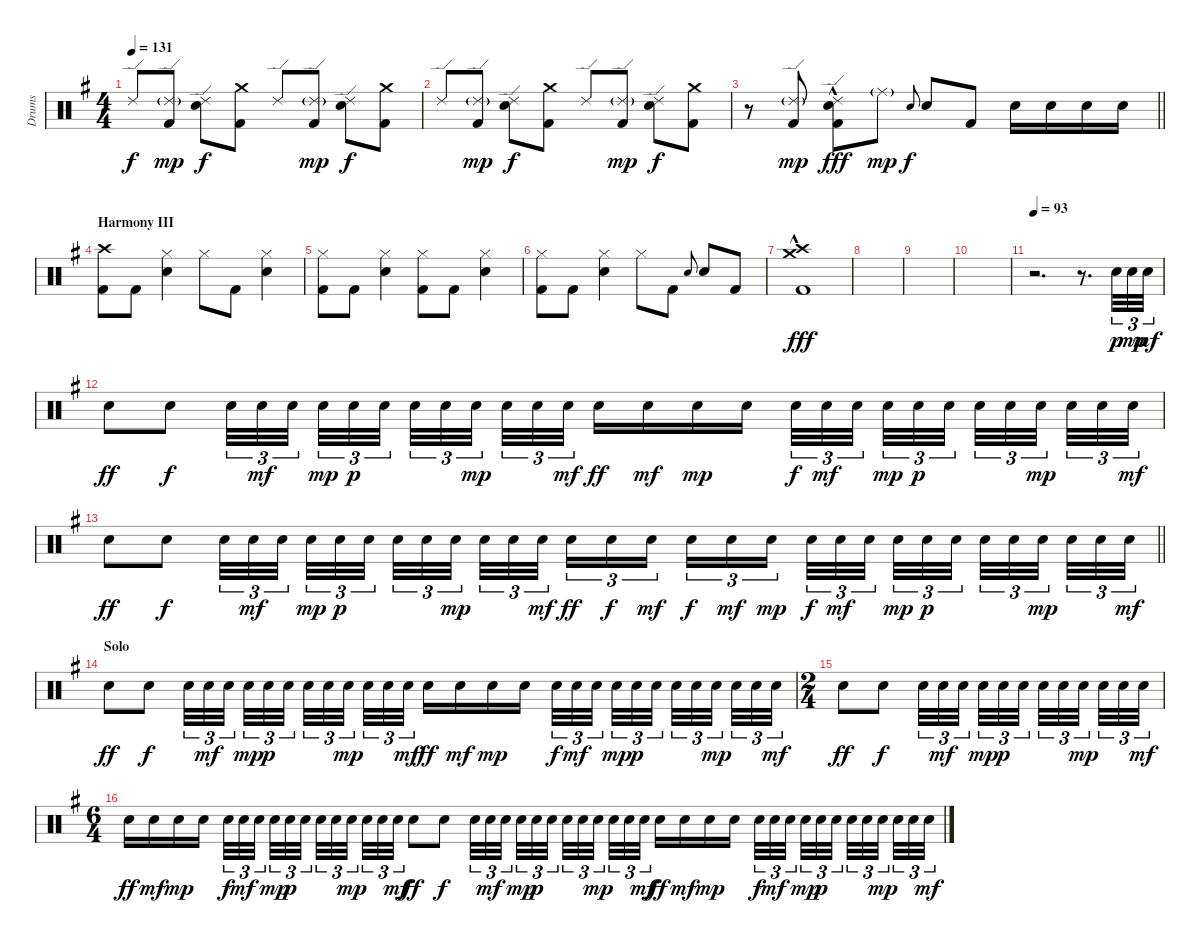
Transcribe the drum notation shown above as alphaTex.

\track ("Drums" "Drums") {instrument percussion}
\staff {score}
\articulation defaults
\ts (4 4)
\tempo 131
\clef neutral
\ks g "Ride (edge) 2".8{dy f}
("Ride (edge) 2"{g} "Kick (hit) 2").8{dy mp} ("Ride (edge) 2" "Electric Snare (hit)").8{dy f} ("Crash medium (hit)" "Kick (hit) 2").8 "Ride (edge) 2".8 ("Ride (edge) 2"{g} "Kick (hit) 2").8{dy mp} ("Ride (edge) 2" "Electric Snare (hit)").8{dy f} ("Crash medium (hit)" "Kick (hit) 2").8 |
"Ride (edge) 2".8 ("Ride (edge) 2"{g} "Kick (hit) 2").8{dy mp} ("Ride (edge) 2" "Electric Snare (hit)").8{dy f} ("Crash medium (hit)" "Kick (hit) 2").8 "Ride (edge) 2".8 ("Ride (edge) 2"{g} "Kick (hit) 2").8{dy mp} ("Ride (edge) 2" "Electric Snare (hit)").8{dy f} ("Crash medium (hit)" "Kick (hit) 2").8 |
\barLineRight lightlight
r.8 ("Ride (edge) 2"{g} "Kick (hit) 2").8{dy mp} ("Ride (edge) 2"{hac} "Electric Snare (hit)" "Kick (hit) 2").8{dy fff} "Ride (middle)"{g}.8{dy mp} "Electric Snare (hit)".8{gr onbeat dy f} "Electric Snare (hit)".8 "Kick (hit) 2".8 "Electric Snare (hit)".16 "Electric Snare (hit)".16 "Electric Snare (hit)".16 "Electric Snare (hit)".16 |
\section ("" "Harmony III")
("Crash high (hit)" "Kick (hit) 2").8 "Kick (hit) 2".8 ("Hi-Hat (closed)" "Electric Snare (hit)").4 "Hi-Hat (closed)".8 "Kick (hit) 2".8 ("Hi-Hat (closed)" "Electric Snare (hit)").4 |
("Hi-Hat (closed)" "Kick (hit) 2").8 "Kick (hit) 2".8 ("Hi-Hat (closed)" "Electric Snare (hit)").4 ("Hi-Hat (closed)" "Kick (hit) 2").8 "Kick (hit) 2".8 ("Hi-Hat (closed)" "Electric Snare (hit)").4 |
("Hi-Hat (closed)" "Kick (hit) 2").8 "Kick (hit) 2".8 ("Hi-Hat (closed)" "Electric Snare (hit)").4 "Hi-Hat (closed)".8 "Kick (hit) 2".8 "Electric Snare (hit)".8{gr onbeat} "Electric Snare (hit)".8 "Kick (hit) 2".8 |
("Crash medium (hit)"{hac} "Crash high (hit)"{hac} "Kick (hit) 2"{hac}).1{dy fff} |
|
|
|
\tempo 93
r.2{d volume 13} r.8{d} "Electric Snare (hit)".32{tu (3 2) dy p} "Electric Snare (hit)".32{tu (3 2) dy mp} "Electric Snare (hit)".32{tu (3 2) dy mf} |
"Electric Snare (hit)".8{dy ff} "Electric Snare (hit)".8{dy f} "Electric Snare (hit)".32{tu (3 2)} "Electric Snare (hit)".32{tu (3 2) dy mf} "Electric Snare (hit)".32{tu (3 2) beam splitsecondary} "Electric Snare (hit)".32{tu (3 2) dy mp} "Electric Snare (hit)".32{tu (3 2) dy p} "Electric Snare (hit)".32{tu (3 2) beam splitsecondary} "Electric Snare (hit)".32{tu (3 2)} "Electric Snare (hit)".32{tu (3 2)} "Electric Snare (hit)".32{tu (3 2) dy mp beam splitsecondary} "Electric Snare (hit)".32{tu (3 2)} "Electric Snare (hit)".32{tu (3 2)} "Electric Snare (hit)".32{tu (3 2) dy mf} "Electric Snare (hit)".16{dy ff} "Electric Snare (hit)".16{dy mf} "Electric Snare (hit)".16{dy mp} "Electric Snare (hit)".16 "Electric Snare (hit)".32{tu (3 2) dy f} "Electric Snare (hit)".32{tu (3 2) dy mf} "Electric Snare (hit)".32{tu (3 2) beam splitsecondary} "Electric Snare (hit)".32{tu (3 2) dy mp} "Electric Snare (hit)".32{tu (3 2) dy p} "Electric Snare (hit)".32{tu (3 2) beam splitsecondary} "Electric Snare (hit)".32{tu (3 2)} "Electric Snare (hit)".32{tu (3 2)} "Electric Snare (hit)".32{tu (3 2) dy mp beam splitsecondary} "Electric Snare (hit)".32{tu (3 2)} "Electric Snare (hit)".32{tu (3 2)} "Electric Snare (hit)".32{tu (3 2) dy mf} |
\barLineRight lightlight "Electric Snare (hit)".8{dy ff} "Electric Snare (hit)".8{dy f} "Electric Snare (hit)".32{tu (3 2)} "Electric Snare (hit)".32{tu (3 2) dy mf} "Electric Snare (hit)".32{tu (3 2) beam splitsecondary} "Electric Snare (hit)".32{tu (3 2) dy mp} "Electric Snare (hit)".32{tu (3 2) dy p} "Electric Snare (hit)".32{tu (3 2) beam splitsecondary} "Electric Snare (hit)".32{tu (3 2)} "Electric Snare (hit)".32{tu (3 2)} "Electric Snare (hit)".32{tu (3 2) dy mp beam splitsecondary} "Electric Snare (hit)".32{tu (3 2)} "Electric Snare (hit)".32{tu (3 2)} "Electric Snare (hit)".32{tu (3 2) dy mf} "Electric Snare (hit)".16{tu (3 2) dy ff} "Electric Snare (hit)".16{tu (3 2) dy f} "Electric Snare (hit)".16{tu (3 2) dy mf beam splitsecondary} "Electric Snare (hit)".16{tu (3 2) dy f} "Electric Snare (hit)".16{tu (3 2) dy mf} "Electric Snare (hit)".16{tu (3 2) dy mp} "Electric Snare (hit)".32{tu (3 2) dy f} "Electric Snare (hit)".32{tu (3 2) dy mf} "Electric Snare (hit)".32{tu (3 2) beam splitsecondary} "Electric Snare (hit)".32{tu (3 2) dy mp} "Electric Snare (hit)".32{tu (3 2) dy p} "Electric Snare (hit)".32{tu (3 2) beam splitsecondary} "Electric Snare (hit)".32{tu (3 2)} "Electric Snare (hit)".32{tu (3 2)} "Electric Snare (hit)".32{tu (3 2) dy mp beam splitsecondary} "Electric Snare (hit)".32{tu (3 2)} "Electric Snare (hit)".32{tu (3 2)} "Electric Snare (hit)".32{tu (3 2) dy mf}
|
\section ("" "Solo")
"Electric Snare (hit)".8{dy ff} "Electric Snare (hit)".8{dy f} "Electric Snare (hit)".32{tu (3 2)} "Electric Snare (hit)".32{tu (3 2) dy mf} "Electric Snare (hit)".32{tu (3 2) beam splitsecondary} "Electric Snare (hit)".32{tu (3 2) dy mp} "Electric Snare (hit)".32{tu (3 2) dy p} "Electric Snare (hit)".32{tu (3 2) beam splitsecondary} "Electric Snare (hit)".32{tu (3 2)} "Electric Snare (hit)".32{tu (3 2)} "Electric Snare (hit)".32{tu (3 2) dy mp beam splitsecondary} "Electric Snare (hit)".32{tu (3 2)} "Electric Snare (hit)".32{tu (3 2)} "Electric Snare (hit)".32{tu (3 2) dy mf} "Electric Snare (hit)".16{dy ff} "Electric Snare (hit)".16{dy mf} "Electric Snare (hit)".16{dy mp} "Electric Snare (hit)".16 "Electric Snare (hit)".32{tu (3 2) dy f} "Electric Snare (hit)".32{tu (3 2) dy mf} "Electric Snare (hit)".32{tu (3 2) beam splitsecondary} "Electric Snare (hit)".32{tu (3 2) dy mp} "Electric Snare (hit)".32{tu (3 2) dy p} "Electric Snare (hit)".32{tu (3 2) beam splitsecondary} "Electric Snare (hit)".32{tu (3 2)} "Electric Snare (hit)".32{tu (3 2)} "Electric Snare (hit)".32{tu (3 2) dy mp beam splitsecondary} "Electric Snare (hit)".32{tu (3 2)} "Electric Snare (hit)".32{tu (3 2)} "Electric Snare (hit)".32{tu (3 2) dy mf} |
\ts (2 4)
"Electric Snare (hit)".8{dy ff} "Electric Snare (hit)".8{dy f} "Electric Snare (hit)".32{tu (3 2)} "Electric Snare (hit)".32{tu (3 2) dy mf} "Electric Snare (hit)".32{tu (3 2) beam splitsecondary} "Electric Snare (hit)".32{tu (3 2) dy mp} "Electric Snare (hit)".32{tu (3 2) dy p} "Electric Snare (hit)".32{tu (3 2) beam splitsecondary} "Electric Snare (hit)".32{tu (3 2)} "Electric Snare (hit)".32{tu (3 2)} "Electric Snare (hit)".32{tu (3 2) dy mp beam splitsecondary} "Electric Snare (hit)".32{tu (3 2)} "Electric Snare (hit)".32{tu (3 2)} "Electric Snare (hit)".32{tu (3 2) dy mf} |
\ts (6 4)
"Electric Snare (hit)".16{dy ff} "Electric Snare (hit)".16{dy mf} "Electric Snare (hit)".16{dy mp} "Electric Snare (hit)".16{beam splitsecondary} "Electric Snare (hit)".32{tu (3 2) dy f} "Electric Snare (hit)".32{tu (3 2) dy mf} "Electric Snare (hit)".32{tu (3 2) beam splitsecondary} "Electric Snare (hit)".32{tu (3 2) dy mp} "Electric Snare (hit)".32{tu (3 2) dy p} "Electric Snare (hit)".32{tu (3 2) beam splitsecondary} "Electric Snare (hit)".32{tu (3 2)} "Electric Snare (hit)".32{tu (3 2)} "Electric Snare (hit)".32{tu (3 2) dy mp beam splitsecondary} "Electric Snare (hit)".32{tu (3 2)} "Electric Snare (hit)".32{tu (3 2)} "Electric Snare (hit)".32{tu (3 2) dy mf} "Electric Snare (hit)".8{dy ff} "Electric Snare (hit)".8{dy f} "Electric Snare (hit)".32{tu (3 2)} "Electric Snare (hit)".32{tu (3 2) dy mf} "Electric Snare (hit)".32{tu (3 2) beam splitsecondary} "Electric Snare (hit)".32{tu (3 2) dy mp} "Electric Snare (hit)".32{tu (3 2) dy p} "Electric Snare (hit)".32{tu (3 2) beam splitsecondary} "Electric Snare (hit)".32{tu (3 2)} "Electric Snare (hit)".32{tu (3 2)} "Electric Snare (hit)".32{tu (3 2) dy mp beam splitsecondary} "Electric Snare (hit)".32{tu (3 2)} "Electric Snare (hit)".32{tu (3 2)} "Electric Snare (hit)".32{tu (3 2) dy mf beam splitsecondary} "Electric Snare (hit)".16{dy ff} "Electric Snare (hit)".16{dy mf} "Electric Snare (hit)".16{dy mp} "Electric Snare (hit)".16{beam splitsecondary} "Electric Snare (hit)".32{tu (3 2) dy f} "Electric Snare (hit)".32{tu (3 2) dy mf} "Electric Snare (hit)".32{tu (3 2) beam splitsecondary} "Electric Snare (hit)".32{tu (3 2) dy mp} "Electric Snare (hit)".32{tu (3 2) dy p} "Electric Snare (hit)".32{tu (3 2) beam splitsecondary} "Electric Snare (hit)".32{tu (3 2)} "Electric Snare (hit)".32{tu (3 2)} "Electric Snare (hit)".32{tu (3 2) dy mp beam splitsecondary} "Electric Snare (hit)".32{tu (3 2)} "Electric Snare (hit)".32{tu (3 2)} "Electric Snare (hit)".32{tu (3 2) dy mf}
